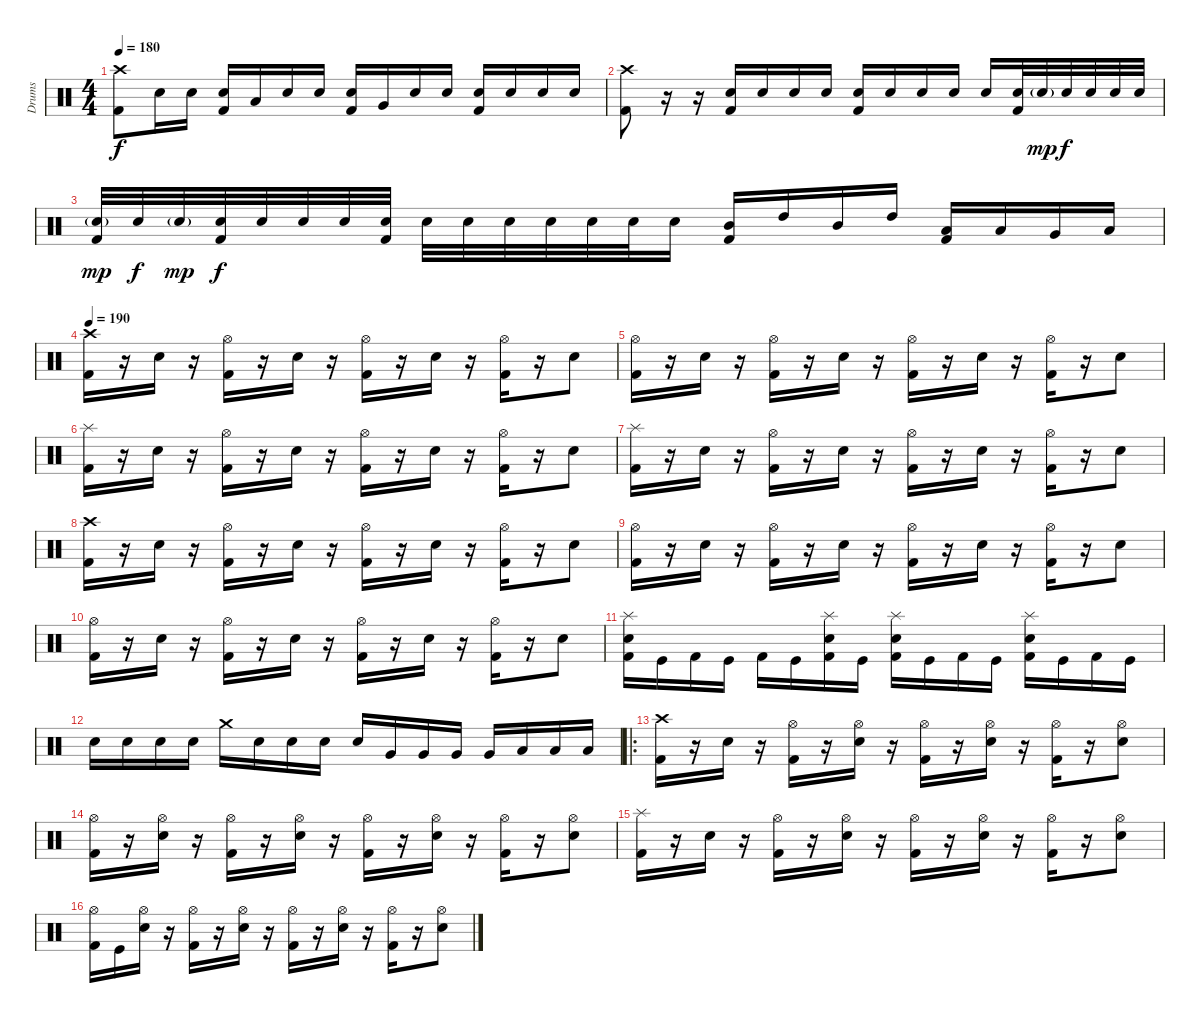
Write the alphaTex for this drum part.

\track ("Drums" "Drums") {instrument percussion}
\staff {score}
\articulation defaults
\ts (4 4)
\tempo 180
\clef neutral
\ks c
("Crash high (hit)" "Kick (hit) 2").8{dy f} "Electric Snare (hit)".16 "Electric Snare (hit)".16 ("Electric Snare (hit)" "Kick (hit) 2").16 "Low Floor Tom (hit)".16 "Electric Snare (hit)".16 "Electric Snare (hit)".16 ("Electric Snare (hit)" "Kick (hit) 2").16 "Very Low Tom (hit)".16 "Electric Snare (hit)".16 "Electric Snare (hit)".16 ("Electric Snare (hit)" "Kick (hit) 2").16 "Electric Snare (hit)".16 "Electric Snare (hit)".16 "Electric Snare (hit)".16 |
("Crash high (hit)" "Kick (hit) 2").8 r.16 r.16 ("Electric Snare (hit)" "Kick (hit) 2").16 "Electric Snare (hit)".16 "Electric Snare (hit)".16 "Electric Snare (hit)".16 ("Electric Snare (hit)" "Kick (hit) 2").16 "Electric Snare (hit)".16 "Electric Snare (hit)".16 "Electric Snare (hit)".16 "Electric Snare (hit)".16 ("Electric Snare (hit)" "Kick (hit) 2").32 "Electric Snare (hit)"{g}.32{dy mp} "Electric Snare (hit)".32{dy f} "Electric Snare (hit)".32 "Electric Snare (hit)".32 "Electric Snare (hit)".32 |
("Electric Snare (hit)"{g} "Kick (hit) 2").32{dy mp} "Electric Snare (hit)".32{dy f} "Electric Snare (hit)"{g}.32{dy mp} ("Electric Snare (hit)" "Kick (hit) 2").32{dy f} "Electric Snare (hit)".32 "Electric Snare (hit)".32 "Electric Snare (hit)".32 ("Electric Snare (hit)" "Kick (hit) 2").32 "Electric Snare (hit)".32 "Electric Snare (hit)".32 "Electric Snare (hit)".32 "Electric Snare (hit)".32 "Electric Snare (hit)".32 "Electric Snare (hit)".32 "Electric Snare (hit)".16 ("Mid Tom (hit)" "Kick (hit) 2").16 "High Tom (hit)".16 "Mid Tom (hit)".16 "High Tom (hit)".16 ("Low Tom (hit)" "Kick (hit) 2").16 "Low Tom (hit)".16 "Very Low Tom (hit)".16 "Low Tom (hit)".16 |
\tempo 190
("Crash high (hit)" "Kick (hit) 2").16 r.16 "Electric Snare (hit)".16 r.16 ("Hi-Hat (open)" "Kick (hit) 2").16 r.16 "Electric Snare (hit)".16 r.16 ("Hi-Hat (open)" "Kick (hit) 2").16 r.16 "Electric Snare (hit)".16 r.16 ("Hi-Hat (open)" "Kick (hit) 2").16 r.16 "Electric Snare (hit)".8 |
("Hi-Hat (open)" "Kick (hit) 2").16 r.16 "Electric Snare (hit)".16 r.16 ("Hi-Hat (open)" "Kick (hit) 2").16 r.16 "Electric Snare (hit)".16 r.16 ("Hi-Hat (open)" "Kick (hit) 2").16 r.16 "Electric Snare (hit)".16 r.16 ("Hi-Hat (open)" "Kick (hit) 2").16 r.16 "Electric Snare (hit)".8 |
("Splash (hit)" "Kick (hit) 2").16 r.16 "Electric Snare (hit)".16 r.16 ("Hi-Hat (open)" "Kick (hit) 2").16 r.16 "Electric Snare (hit)".16 r.16 ("Hi-Hat (open)" "Kick (hit) 2").16 r.16 "Electric Snare (hit)".16 r.16 ("Hi-Hat (open)" "Kick (hit) 2").16 r.16 "Electric Snare (hit)".8 |
("Splash (hit)" "Kick (hit) 2").16 r.16 "Electric Snare (hit)".16 r.16 ("Hi-Hat (open)" "Kick (hit) 2").16 r.16 "Electric Snare (hit)".16 r.16 ("Hi-Hat (open)" "Kick (hit) 2").16 r.16 "Electric Snare (hit)".16 r.16 ("Hi-Hat (open)" "Kick (hit) 2").16 r.16 "Electric Snare (hit)".8 |
("Crash high (hit)" "Kick (hit) 2").16 r.16 "Electric Snare (hit)".16 r.16 ("Hi-Hat (open)" "Kick (hit) 2").16 r.16 "Electric Snare (hit)".16 r.16 ("Hi-Hat (open)" "Kick (hit) 2").16 r.16 "Electric Snare (hit)".16 r.16 ("Hi-Hat (open)" "Kick (hit) 2").16 r.16 "Electric Snare (hit)".8 |
("Hi-Hat (open)" "Kick (hit) 2").16 r.16 "Electric Snare (hit)".16 r.16 ("Hi-Hat (open)" "Kick (hit) 2").16 r.16 "Electric Snare (hit)".16 r.16 ("Hi-Hat (open)" "Kick (hit) 2").16 r.16 "Electric Snare (hit)".16 r.16 ("Hi-Hat (open)" "Kick (hit) 2").16 r.16 "Electric Snare (hit)".8 |
("Hi-Hat (open)" "Kick (hit) 2").16 r.16 "Electric Snare (hit)".16 r.16 ("Hi-Hat (open)" "Kick (hit) 2").16 r.16 "Electric Snare (hit)".16 r.16 ("Hi-Hat (open)" "Kick (hit) 2").16 r.16 "Electric Snare (hit)".16 r.16 ("Hi-Hat (open)" "Kick (hit) 2").16 r.16 "Electric Snare (hit)".8 |
("Splash (hit)" "Electric Snare (hit)" "Kick (hit) 2").16 "Kick (hit)".16 "Kick (hit) 2".16 "Kick (hit)".16 "Kick (hit) 2".16 "Kick (hit)".16 ("Splash (hit)" "Electric Snare (hit)" "Kick (hit) 2").16 "Kick (hit)".16 ("Splash (hit)" "Electric Snare (hit)" "Kick (hit) 2").16 "Kick (hit)".16 "Kick (hit) 2".16 "Kick (hit)".16 ("Splash (hit)" "Electric Snare (hit)" "Kick (hit) 2").16 "Kick (hit)".16 "Kick (hit) 2".16 "Kick (hit)".16 |
"Electric Snare (hit)".16 "Electric Snare (hit)".16 "Electric Snare (hit)".16 "Electric Snare (hit)".16 "Crash medium (hit)".16 "Electric Snare (hit)".16 "Electric Snare (hit)".16 "Electric Snare (hit)".16 "Electric Snare (hit)".16 "Very Low Tom (hit)".16 "Very Low Tom (hit)".16 "Very Low Tom (hit)".16 "Very Low Tom (hit)".16 "Low Floor Tom (hit)".16 "Low Floor Tom (hit)".16 "Low Floor Tom (hit)".16 |
\ro
("Crash high (hit)" "Kick (hit) 2").16 r.16 "Electric Snare (hit)".16 r.16 ("Hi-Hat (open)" "Kick (hit) 2").16 r.16 ("Hi-Hat (open)" "Electric Snare (hit)").16 r.16 ("Hi-Hat (open)" "Kick (hit) 2").16 r.16 ("Hi-Hat (open)" "Electric Snare (hit)").16 r.16 ("Hi-Hat (open)" "Kick (hit) 2").16 r.16 ("Hi-Hat (open)" "Electric Snare (hit)").8 |
("Hi-Hat (open)" "Kick (hit) 2").16 r.16 ("Hi-Hat (open)" "Electric Snare (hit)").16 r.16 ("Hi-Hat (open)" "Kick (hit) 2").16 r.16 ("Hi-Hat (open)" "Electric Snare (hit)").16 r.16 ("Hi-Hat (open)" "Kick (hit) 2").16 r.16 ("Hi-Hat (open)" "Electric Snare (hit)").16 r.16 ("Hi-Hat (open)" "Kick (hit) 2").16 r.16 ("Hi-Hat (open)" "Electric Snare (hit)").8 |
("Splash (hit)" "Kick (hit) 2").16 r.16 "Electric Snare (hit)".16 r.16 ("Hi-Hat (open)" "Kick (hit) 2").16 r.16 ("Hi-Hat (open)" "Electric Snare (hit)").16 r.16 ("Hi-Hat (open)" "Kick (hit) 2").16 r.16 ("Hi-Hat (open)" "Electric Snare (hit)").16 r.16 ("Hi-Hat (open)" "Kick (hit) 2").16 r.16 ("Hi-Hat (open)" "Electric Snare (hit)").8 |
("Hi-Hat (open)" "Kick (hit) 2").16 "Kick (hit)".16 ("Hi-Hat (open)" "Electric Snare (hit)").16 r.16 ("Hi-Hat (open)" "Kick (hit) 2").16 r.16 ("Hi-Hat (open)" "Electric Snare (hit)").16 r.16 ("Hi-Hat (open)" "Kick (hit) 2").16 r.16 ("Hi-Hat (open)" "Electric Snare (hit)").16 r.16 ("Hi-Hat (open)" "Kick (hit) 2").16 r.16 ("Hi-Hat (open)" "Electric Snare (hit)").8
